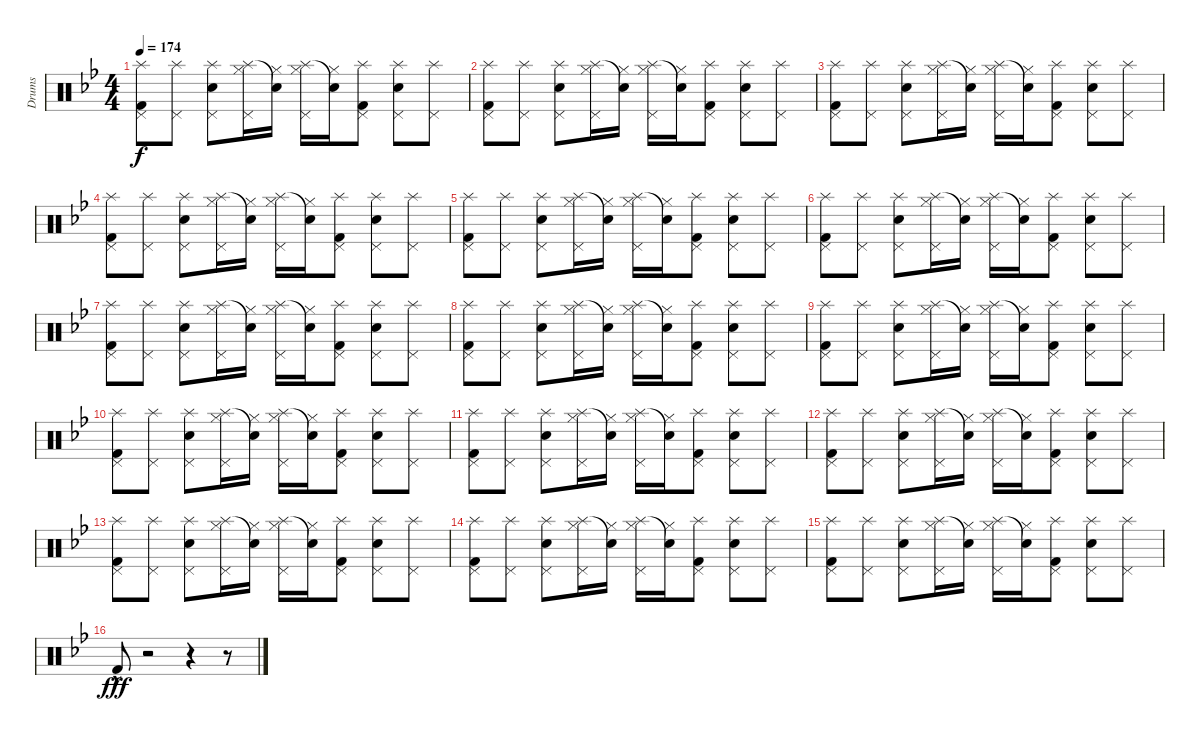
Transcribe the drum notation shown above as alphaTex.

\track ("Drums" "Drums") {instrument percussion}
\staff {score}
\articulation defaults
\ts (4 4)
\tempo 174
\clef neutral
\ks gminor
("Splash (hit)" "Pedal Hi-Hat (hit)" "Kick (hit) 2").8{dy f} ("Splash (hit)" "Pedal Hi-Hat (hit)").8 ("Splash (hit)" "Pedal Hi-Hat (hit)" "Snare (hit) 2").8 ("Splash (hit)" "Pedal Hi-Hat (hit)" "Hi-Hat (closed)").16 ("Snare (hit)"{t} "Hi-Hat (closed)").16 ("Splash (hit)" "Pedal Hi-Hat (hit)" "Hi-Hat (closed)").16 ("Snare (hit)"{t} "Hi-Hat (closed)").16 ("Splash (hit)" "Pedal Hi-Hat (hit)" "Kick (hit) 2").8 ("Splash (hit)" "Pedal Hi-Hat (hit)" "Snare (hit) 2").8 ("Splash (hit)" "Pedal Hi-Hat (hit)").8 |
("Splash (hit)" "Pedal Hi-Hat (hit)" "Kick (hit) 2").8 ("Splash (hit)" "Pedal Hi-Hat (hit)").8 ("Splash (hit)" "Pedal Hi-Hat (hit)" "Snare (hit) 2").8 ("Splash (hit)" "Pedal Hi-Hat (hit)" "Hi-Hat (closed)").16 ("Snare (hit)"{t} "Hi-Hat (closed)").16 ("Splash (hit)" "Pedal Hi-Hat (hit)" "Hi-Hat (closed)").16 ("Snare (hit)"{t} "Hi-Hat (closed)").16 ("Splash (hit)" "Pedal Hi-Hat (hit)" "Kick (hit) 2").8 ("Splash (hit)" "Pedal Hi-Hat (hit)" "Snare (hit) 2").8 ("Splash (hit)" "Pedal Hi-Hat (hit)").8 |
("Splash (hit)" "Pedal Hi-Hat (hit)" "Kick (hit) 2").8 ("Splash (hit)" "Pedal Hi-Hat (hit)").8 ("Splash (hit)" "Pedal Hi-Hat (hit)" "Snare (hit) 2").8 ("Splash (hit)" "Pedal Hi-Hat (hit)" "Hi-Hat (closed)").16 ("Snare (hit)"{t} "Hi-Hat (closed)").16 ("Splash (hit)" "Pedal Hi-Hat (hit)" "Hi-Hat (closed)").16 ("Snare (hit)"{t} "Hi-Hat (closed)").16 ("Splash (hit)" "Pedal Hi-Hat (hit)" "Kick (hit) 2").8 ("Splash (hit)" "Pedal Hi-Hat (hit)" "Snare (hit) 2").8 ("Splash (hit)" "Pedal Hi-Hat (hit)").8 |
("Splash (hit)" "Pedal Hi-Hat (hit)" "Kick (hit) 2").8 ("Splash (hit)" "Pedal Hi-Hat (hit)").8 ("Splash (hit)" "Pedal Hi-Hat (hit)" "Snare (hit) 2").8 ("Splash (hit)" "Pedal Hi-Hat (hit)" "Hi-Hat (closed)").16 ("Snare (hit)"{t} "Hi-Hat (closed)").16 ("Splash (hit)" "Pedal Hi-Hat (hit)" "Hi-Hat (closed)").16 ("Snare (hit)"{t} "Hi-Hat (closed)").16 ("Splash (hit)" "Pedal Hi-Hat (hit)" "Kick (hit) 2").8 ("Splash (hit)" "Pedal Hi-Hat (hit)" "Snare (hit) 2").8 ("Splash (hit)" "Pedal Hi-Hat (hit)").8 |
("Splash (hit)" "Pedal Hi-Hat (hit)" "Kick (hit) 2").8 ("Splash (hit)" "Pedal Hi-Hat (hit)").8 ("Splash (hit)" "Pedal Hi-Hat (hit)" "Snare (hit) 2").8 ("Splash (hit)" "Pedal Hi-Hat (hit)" "Hi-Hat (closed)").16 ("Snare (hit)"{t} "Hi-Hat (closed)").16 ("Splash (hit)" "Pedal Hi-Hat (hit)" "Hi-Hat (closed)").16 ("Snare (hit)"{t} "Hi-Hat (closed)").16 ("Splash (hit)" "Pedal Hi-Hat (hit)" "Kick (hit) 2").8 ("Splash (hit)" "Pedal Hi-Hat (hit)" "Snare (hit) 2").8 ("Splash (hit)" "Pedal Hi-Hat (hit)").8 |
("Splash (hit)" "Pedal Hi-Hat (hit)" "Kick (hit) 2").8 ("Splash (hit)" "Pedal Hi-Hat (hit)").8 ("Splash (hit)" "Pedal Hi-Hat (hit)" "Snare (hit) 2").8 ("Splash (hit)" "Pedal Hi-Hat (hit)" "Hi-Hat (closed)").16 ("Snare (hit)"{t} "Hi-Hat (closed)").16 ("Splash (hit)" "Pedal Hi-Hat (hit)" "Hi-Hat (closed)").16 ("Snare (hit)"{t} "Hi-Hat (closed)").16 ("Splash (hit)" "Pedal Hi-Hat (hit)" "Kick (hit) 2").8 ("Splash (hit)" "Pedal Hi-Hat (hit)" "Snare (hit) 2").8 ("Splash (hit)" "Pedal Hi-Hat (hit)").8 |
("Splash (hit)" "Pedal Hi-Hat (hit)" "Kick (hit) 2").8 ("Splash (hit)" "Pedal Hi-Hat (hit)").8 ("Splash (hit)" "Pedal Hi-Hat (hit)" "Snare (hit) 2").8 ("Splash (hit)" "Pedal Hi-Hat (hit)" "Hi-Hat (closed)").16 ("Snare (hit)"{t} "Hi-Hat (closed)").16 ("Splash (hit)" "Pedal Hi-Hat (hit)" "Hi-Hat (closed)").16 ("Snare (hit)"{t} "Hi-Hat (closed)").16 ("Splash (hit)" "Pedal Hi-Hat (hit)" "Kick (hit) 2").8 ("Splash (hit)" "Pedal Hi-Hat (hit)" "Snare (hit) 2").8 ("Splash (hit)" "Pedal Hi-Hat (hit)").8 |
("Splash (hit)" "Pedal Hi-Hat (hit)" "Kick (hit) 2").8 ("Splash (hit)" "Pedal Hi-Hat (hit)").8 ("Splash (hit)" "Pedal Hi-Hat (hit)" "Snare (hit) 2").8 ("Splash (hit)" "Pedal Hi-Hat (hit)" "Hi-Hat (closed)").16 ("Snare (hit)"{t} "Hi-Hat (closed)").16 ("Splash (hit)" "Pedal Hi-Hat (hit)" "Hi-Hat (closed)").16 ("Snare (hit)"{t} "Hi-Hat (closed)").16 ("Splash (hit)" "Pedal Hi-Hat (hit)" "Kick (hit) 2").8 ("Splash (hit)" "Pedal Hi-Hat (hit)" "Snare (hit) 2").8 ("Splash (hit)" "Pedal Hi-Hat (hit)").8 |
("Splash (hit)" "Pedal Hi-Hat (hit)" "Kick (hit) 2").8 ("Splash (hit)" "Pedal Hi-Hat (hit)").8 ("Splash (hit)" "Pedal Hi-Hat (hit)" "Snare (hit) 2").8 ("Splash (hit)" "Pedal Hi-Hat (hit)" "Hi-Hat (closed)").16 ("Snare (hit)"{t} "Hi-Hat (closed)").16 ("Splash (hit)" "Pedal Hi-Hat (hit)" "Hi-Hat (closed)").16 ("Snare (hit)"{t} "Hi-Hat (closed)").16 ("Splash (hit)" "Pedal Hi-Hat (hit)" "Kick (hit) 2").8 ("Splash (hit)" "Pedal Hi-Hat (hit)" "Snare (hit) 2").8 ("Splash (hit)" "Pedal Hi-Hat (hit)").8 |
("Splash (hit)" "Pedal Hi-Hat (hit)" "Kick (hit) 2").8 ("Splash (hit)" "Pedal Hi-Hat (hit)").8 ("Splash (hit)" "Pedal Hi-Hat (hit)" "Snare (hit) 2").8 ("Splash (hit)" "Pedal Hi-Hat (hit)" "Hi-Hat (closed)").16 ("Snare (hit)"{t} "Hi-Hat (closed)").16 ("Splash (hit)" "Pedal Hi-Hat (hit)" "Hi-Hat (closed)").16 ("Snare (hit)"{t} "Hi-Hat (closed)").16 ("Splash (hit)" "Pedal Hi-Hat (hit)" "Kick (hit) 2").8 ("Splash (hit)" "Pedal Hi-Hat (hit)" "Snare (hit) 2").8 ("Splash (hit)" "Pedal Hi-Hat (hit)").8 |
("Splash (hit)" "Pedal Hi-Hat (hit)" "Kick (hit) 2").8 ("Splash (hit)" "Pedal Hi-Hat (hit)").8 ("Splash (hit)" "Pedal Hi-Hat (hit)" "Snare (hit) 2").8 ("Splash (hit)" "Pedal Hi-Hat (hit)" "Hi-Hat (closed)").16 ("Snare (hit)"{t} "Hi-Hat (closed)").16 ("Splash (hit)" "Pedal Hi-Hat (hit)" "Hi-Hat (closed)").16 ("Snare (hit)"{t} "Hi-Hat (closed)").16 ("Splash (hit)" "Pedal Hi-Hat (hit)" "Kick (hit) 2").8 ("Splash (hit)" "Pedal Hi-Hat (hit)" "Snare (hit) 2").8 ("Splash (hit)" "Pedal Hi-Hat (hit)").8 |
("Splash (hit)" "Pedal Hi-Hat (hit)" "Kick (hit) 2").8 ("Splash (hit)" "Pedal Hi-Hat (hit)").8 ("Splash (hit)" "Pedal Hi-Hat (hit)" "Snare (hit) 2").8 ("Splash (hit)" "Pedal Hi-Hat (hit)" "Hi-Hat (closed)").16 ("Snare (hit)"{t} "Hi-Hat (closed)").16 ("Splash (hit)" "Pedal Hi-Hat (hit)" "Hi-Hat (closed)").16 ("Snare (hit)"{t} "Hi-Hat (closed)").16 ("Splash (hit)" "Pedal Hi-Hat (hit)" "Kick (hit) 2").8 ("Splash (hit)" "Pedal Hi-Hat (hit)" "Snare (hit) 2").8 ("Splash (hit)" "Pedal Hi-Hat (hit)").8 |
("Splash (hit)" "Pedal Hi-Hat (hit)" "Kick (hit) 2").8 ("Splash (hit)" "Pedal Hi-Hat (hit)").8 ("Splash (hit)" "Pedal Hi-Hat (hit)" "Snare (hit) 2").8 ("Splash (hit)" "Pedal Hi-Hat (hit)" "Hi-Hat (closed)").16 ("Snare (hit)"{t} "Hi-Hat (closed)").16 ("Splash (hit)" "Pedal Hi-Hat (hit)" "Hi-Hat (closed)").16 ("Snare (hit)"{t} "Hi-Hat (closed)").16 ("Splash (hit)" "Pedal Hi-Hat (hit)" "Kick (hit) 2").8 ("Splash (hit)" "Pedal Hi-Hat (hit)" "Snare (hit) 2").8 ("Splash (hit)" "Pedal Hi-Hat (hit)").8 |
("Splash (hit)" "Pedal Hi-Hat (hit)" "Kick (hit) 2").8 ("Splash (hit)" "Pedal Hi-Hat (hit)").8 ("Splash (hit)" "Pedal Hi-Hat (hit)" "Snare (hit) 2").8 ("Splash (hit)" "Pedal Hi-Hat (hit)" "Hi-Hat (closed)").16 ("Snare (hit)"{t} "Hi-Hat (closed)").16 ("Splash (hit)" "Pedal Hi-Hat (hit)" "Hi-Hat (closed)").16 ("Snare (hit)"{t} "Hi-Hat (closed)").16 ("Splash (hit)" "Pedal Hi-Hat (hit)" "Kick (hit) 2").8 ("Splash (hit)" "Pedal Hi-Hat (hit)" "Snare (hit) 2").8 ("Splash (hit)" "Pedal Hi-Hat (hit)").8 |
("Splash (hit)" "Pedal Hi-Hat (hit)" "Kick (hit) 2").8 ("Splash (hit)" "Pedal Hi-Hat (hit)").8 ("Splash (hit)" "Pedal Hi-Hat (hit)" "Snare (hit) 2").8 ("Splash (hit)" "Pedal Hi-Hat (hit)" "Hi-Hat (closed)").16 ("Snare (hit)"{t} "Hi-Hat (closed)").16 ("Splash (hit)" "Pedal Hi-Hat (hit)" "Hi-Hat (closed)").16 ("Snare (hit)"{t} "Hi-Hat (closed)").16 ("Splash (hit)" "Pedal Hi-Hat (hit)" "Kick (hit) 2").8 ("Splash (hit)" "Pedal Hi-Hat (hit)" "Snare (hit) 2").8 ("Splash (hit)" "Pedal Hi-Hat (hit)").8 |
"Kick (hit) 2"{hac}.8{dy fff} r.2 r.4 r.8
